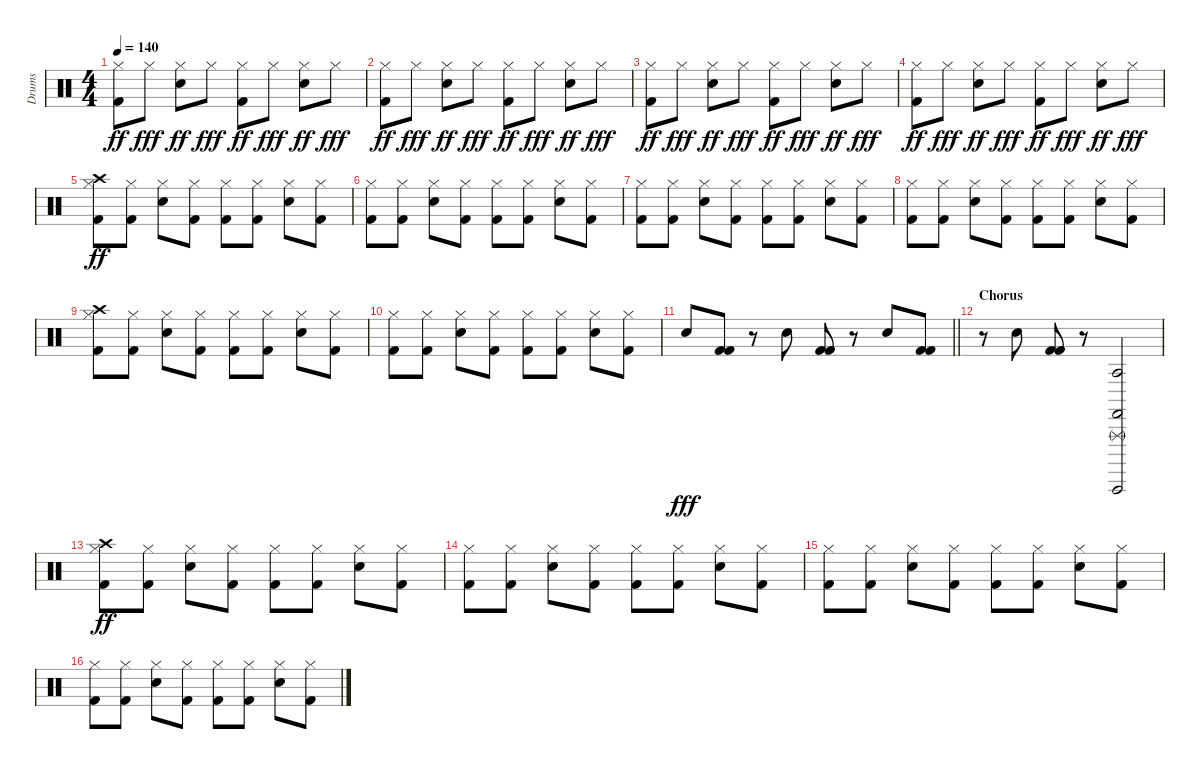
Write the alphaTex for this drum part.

\track ("Drums" "Drums") {instrument percussion}
\staff {score}
\articulation defaults
\ts (4 4)
\tempo 140
\clef neutral
\ks c
("Hi-Hat (closed)" "Kick (hit) 2").8{dy ff} "Hi-Hat (closed)".8{dy fff} ("Hi-Hat (closed)" "Snare (hit) 2").8{dy ff} "Hi-Hat (closed)".8{dy fff} ("Hi-Hat (closed)" "Kick (hit) 2").8{dy ff} "Hi-Hat (closed)".8{dy fff} ("Hi-Hat (closed)" "Snare (hit) 2").8{dy ff} "Hi-Hat (closed)".8{dy fff} |
("Hi-Hat (closed)" "Kick (hit) 2").8{dy ff} "Hi-Hat (closed)".8{dy fff} ("Hi-Hat (closed)" "Snare (hit) 2").8{dy ff} "Hi-Hat (closed)".8{dy fff} ("Hi-Hat (closed)" "Kick (hit) 2").8{dy ff} "Hi-Hat (closed)".8{dy fff} ("Hi-Hat (closed)" "Snare (hit) 2").8{dy ff} "Hi-Hat (closed)".8{dy fff} |
("Hi-Hat (closed)" "Kick (hit) 2").8{dy ff} "Hi-Hat (closed)".8{dy fff} ("Hi-Hat (closed)" "Snare (hit) 2").8{dy ff} "Hi-Hat (closed)".8{dy fff} ("Hi-Hat (closed)" "Kick (hit) 2").8{dy ff} "Hi-Hat (closed)".8{dy fff} ("Hi-Hat (closed)" "Snare (hit) 2").8{dy ff} "Hi-Hat (closed)".8{dy fff} |
("Hi-Hat (closed)" "Kick (hit) 2").8{dy ff} "Hi-Hat (closed)".8{dy fff} ("Hi-Hat (closed)" "Snare (hit) 2").8{dy ff} "Hi-Hat (closed)".8{dy fff} ("Hi-Hat (closed)" "Kick (hit) 2").8{dy ff} "Hi-Hat (closed)".8{dy fff} ("Hi-Hat (closed)" "Snare (hit) 2").8{dy ff} "Hi-Hat (closed)".8{dy fff} |
("Crash high (hit)" "Hi-Hat (closed)" "Kick (hit) 2").8{dy ff} ("Hi-Hat (closed)" "Kick (hit) 2").8 ("Hi-Hat (closed)" "Snare (hit) 2").8 ("Hi-Hat (closed)" "Kick (hit) 2").8 ("Hi-Hat (closed)" "Kick (hit) 2").8 ("Hi-Hat (closed)" "Kick (hit) 2").8 ("Hi-Hat (closed)" "Snare (hit) 2").8 ("Hi-Hat (closed)" "Kick (hit) 2").8 |
("Hi-Hat (closed)" "Kick (hit) 2").8 ("Hi-Hat (closed)" "Kick (hit) 2").8 ("Hi-Hat (closed)" "Snare (hit) 2").8 ("Hi-Hat (closed)" "Kick (hit) 2").8 ("Hi-Hat (closed)" "Kick (hit) 2").8 ("Hi-Hat (closed)" "Kick (hit) 2").8 ("Hi-Hat (closed)" "Snare (hit) 2").8 ("Hi-Hat (closed)" "Kick (hit) 2").8 |
("Hi-Hat (closed)" "Kick (hit) 2").8 ("Hi-Hat (closed)" "Kick (hit) 2").8 ("Hi-Hat (closed)" "Snare (hit) 2").8 ("Hi-Hat (closed)" "Kick (hit) 2").8 ("Hi-Hat (closed)" "Kick (hit) 2").8 ("Hi-Hat (closed)" "Kick (hit) 2").8 ("Hi-Hat (closed)" "Snare (hit) 2").8 ("Hi-Hat (closed)" "Kick (hit) 2").8 |
("Hi-Hat (closed)" "Kick (hit) 2").8 ("Hi-Hat (closed)" "Kick (hit) 2").8 ("Hi-Hat (closed)" "Snare (hit) 2").8 ("Hi-Hat (closed)" "Kick (hit) 2").8 ("Hi-Hat (closed)" "Kick (hit) 2").8 ("Hi-Hat (closed)" "Kick (hit) 2").8 ("Hi-Hat (closed)" "Snare (hit) 2").8 ("Hi-Hat (closed)" "Kick (hit) 2").8 |
("Crash high (hit)" "Hi-Hat (closed)" "Kick (hit) 2").8 ("Hi-Hat (closed)" "Kick (hit) 2").8 ("Hi-Hat (closed)" "Snare (hit) 2").8 ("Hi-Hat (closed)" "Kick (hit) 2").8 ("Hi-Hat (closed)" "Kick (hit) 2").8 ("Hi-Hat (closed)" "Kick (hit) 2").8 ("Hi-Hat (closed)" "Snare (hit) 2").8 ("Hi-Hat (closed)" "Kick (hit) 2").8 |
("Hi-Hat (closed)" "Kick (hit) 2").8 ("Hi-Hat (closed)" "Kick (hit) 2").8 ("Hi-Hat (closed)" "Snare (hit) 2").8 ("Hi-Hat (closed)" "Kick (hit) 2").8 ("Hi-Hat (closed)" "Kick (hit) 2").8 ("Hi-Hat (closed)" "Kick (hit) 2").8 ("Hi-Hat (closed)" "Snare (hit) 2").8 ("Hi-Hat (closed)" "Kick (hit) 2").8 |
\barLineRight lightlight "Snare (hit) 2".8{dy fff volume 16}
("Kick (hit) 2" "Kick (hit) 2").8 r.8 "Snare (hit) 2".8 ("Kick (hit) 2" "Kick (hit) 2").8 r.8 "Snare (hit) 2".8 ("Kick (hit) 2" "Kick (hit) 2").8 |
\section ("" "Chorus")
r.8 "Snare (hit) 2".8 ("Kick (hit) 2" "Kick (hit) 2").8 r.8 ("Castanets (hit)" "Triangle (rnute)" "Agogo tow (hit)" "Guiro (hit)").2 |
("Crash high (hit)" "Hi-Hat (closed)" "Kick (hit) 2").8{dy ff volume 12} ("Hi-Hat (closed)" "Kick (hit) 2").8 ("Hi-Hat (closed)" "Snare (hit) 2").8 ("Hi-Hat (closed)" "Kick (hit) 2").8 ("Hi-Hat (closed)" "Kick (hit) 2").8 ("Hi-Hat (closed)" "Kick (hit) 2").8 ("Hi-Hat (closed)" "Snare (hit) 2").8 ("Hi-Hat (closed)" "Kick (hit) 2").8 |
("Hi-Hat (closed)" "Kick (hit) 2").8 ("Hi-Hat (closed)" "Kick (hit) 2").8 ("Hi-Hat (closed)" "Snare (hit) 2").8 ("Hi-Hat (closed)" "Kick (hit) 2").8 ("Hi-Hat (closed)" "Kick (hit) 2").8 ("Hi-Hat (closed)" "Kick (hit) 2").8 ("Hi-Hat (closed)" "Snare (hit) 2").8 ("Hi-Hat (closed)" "Kick (hit) 2").8 |
("Hi-Hat (closed)" "Kick (hit) 2").8 ("Hi-Hat (closed)" "Kick (hit) 2").8 ("Hi-Hat (closed)" "Snare (hit) 2").8 ("Hi-Hat (closed)" "Kick (hit) 2").8 ("Hi-Hat (closed)" "Kick (hit) 2").8 ("Hi-Hat (closed)" "Kick (hit) 2").8 ("Hi-Hat (closed)" "Snare (hit) 2").8 ("Hi-Hat (closed)" "Kick (hit) 2").8 |
("Hi-Hat (closed)" "Kick (hit) 2").8 ("Hi-Hat (closed)" "Kick (hit) 2").8 ("Hi-Hat (closed)" "Snare (hit) 2").8 ("Hi-Hat (closed)" "Kick (hit) 2").8 ("Hi-Hat (closed)" "Kick (hit) 2").8 ("Hi-Hat (closed)" "Kick (hit) 2").8 ("Hi-Hat (closed)" "Snare (hit) 2").8 ("Hi-Hat (closed)" "Kick (hit) 2").8
